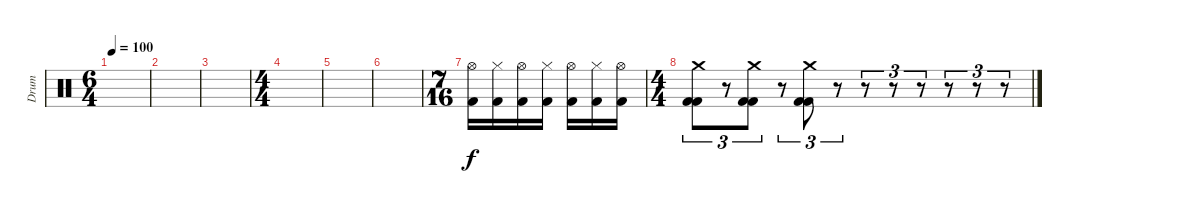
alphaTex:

\track ("Drum" "Drum") {instrument percussion}
\staff {score}
\articulation defaults
\ts (6 4)
\tempo 100
\clef neutral
\ks c
|
|
|
\ts (4 4)
|
|
|
\ts (7 16)
("Hi-Hat (open)" "Kick (hit) 2").16 ("Hi-Hat (closed)" "Kick (hit) 2").16 ("Hi-Hat (open)" "Kick (hit) 2").16 ("Hi-Hat (closed)" "Kick (hit) 2").16 ("Hi-Hat (open)" "Kick (hit) 2").16 ("Hi-Hat (closed)" "Kick (hit) 2").16 ("Hi-Hat (open)" "Kick (hit) 2").16 |
\ts (4 4)
("Crash medium (hit)" "Kick (hit) 2" "Kick (hit) 2").8{tu (3 2)} r.8{tu (3 2)} ("Crash medium (hit)" "Kick (hit) 2" "Kick (hit) 2").8{tu (3 2)} r.8{tu (3 2)} ("Crash medium (hit)" "Kick (hit) 2" "Kick (hit) 2").8{tu (3 2)} r.8{tu (3 2)} r.8{tu (3 2)} r.8{tu (3 2)} r.8{tu (3 2)} r.8{tu (3 2)} r.8{tu (3 2)} r.8{tu (3 2)}
